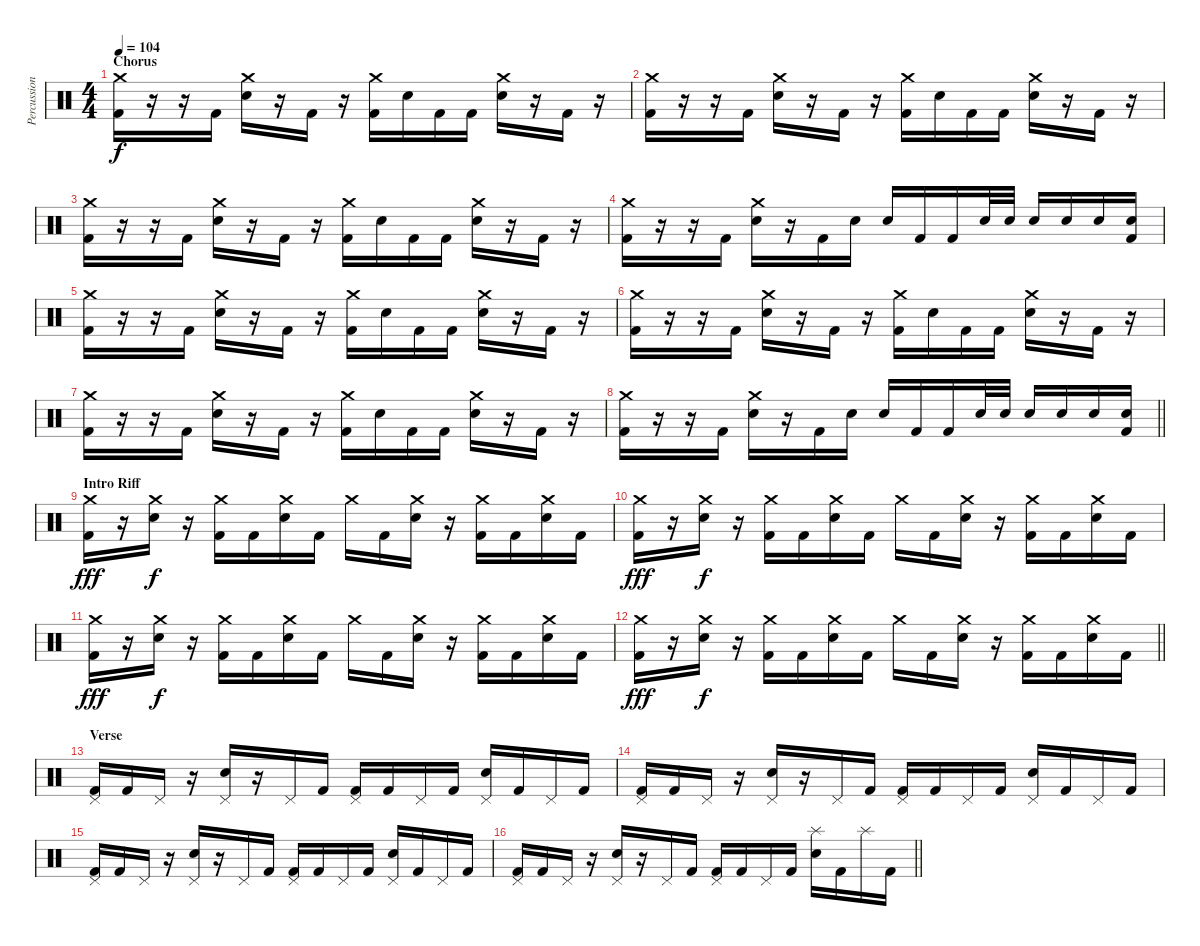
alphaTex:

\track ("Percussion" "Percussion") {instrument percussion}
\staff {score}
\articulation defaults
\ts (4 4)
\section ("" "Chorus")
\tempo 104
\clef neutral
\ks c
("Crash medium (hit)" "Kick (hit) 2").16{dy f} r.16 r.16 "Kick (hit) 2".16 ("Crash medium (hit)" "Electric Snare (hit)").16 r.16 "Kick (hit) 2".16 r.16 ("Crash medium (hit)" "Kick (hit) 2").16 "Electric Snare (hit)".16 "Kick (hit) 2".16 "Kick (hit) 2".16 ("Crash medium (hit)" "Electric Snare (hit)").16 r.16 "Kick (hit) 2".16 r.16 |
("Crash medium (hit)" "Kick (hit) 2").16 r.16 r.16 "Kick (hit) 2".16 ("Crash medium (hit)" "Electric Snare (hit)").16 r.16 "Kick (hit) 2".16 r.16 ("Crash medium (hit)" "Kick (hit) 2").16 "Electric Snare (hit)".16 "Kick (hit) 2".16 "Kick (hit) 2".16 ("Crash medium (hit)" "Electric Snare (hit)").16 r.16 "Kick (hit) 2".16 r.16 |
("Crash medium (hit)" "Kick (hit) 2").16 r.16 r.16 "Kick (hit) 2".16 ("Crash medium (hit)" "Electric Snare (hit)").16 r.16 "Kick (hit) 2".16 r.16 ("Crash medium (hit)" "Kick (hit) 2").16 "Electric Snare (hit)".16 "Kick (hit) 2".16 "Kick (hit) 2".16 ("Crash medium (hit)" "Electric Snare (hit)").16 r.16 "Kick (hit) 2".16 r.16 |
("Crash medium (hit)" "Kick (hit) 2").16 r.16 r.16 "Kick (hit) 2".16 ("Crash medium (hit)" "Electric Snare (hit)").16 r.16 "Kick (hit) 2".16 "Electric Snare (hit)".16 "Electric Snare (hit)".16 "Kick (hit) 2".16 "Kick (hit) 2".16 "Electric Snare (hit)".32 "Electric Snare (hit)".32 "Electric Snare (hit)".16 "Electric Snare (hit)".16 "Electric Snare (hit)".16 ("Electric Snare (hit)" "Kick (hit) 2").16 |
("Crash medium (hit)" "Kick (hit) 2").16 r.16 r.16 "Kick (hit) 2".16 ("Crash medium (hit)" "Electric Snare (hit)").16 r.16 "Kick (hit) 2".16 r.16 ("Crash medium (hit)" "Kick (hit) 2").16 "Electric Snare (hit)".16 "Kick (hit) 2".16 "Kick (hit) 2".16 ("Crash medium (hit)" "Electric Snare (hit)").16 r.16 "Kick (hit) 2".16 r.16 |
("Crash medium (hit)" "Kick (hit) 2").16 r.16 r.16 "Kick (hit) 2".16 ("Crash medium (hit)" "Electric Snare (hit)").16 r.16 "Kick (hit) 2".16 r.16 ("Crash medium (hit)" "Kick (hit) 2").16 "Electric Snare (hit)".16 "Kick (hit) 2".16 "Kick (hit) 2".16 ("Crash medium (hit)" "Electric Snare (hit)").16 r.16 "Kick (hit) 2".16 r.16 |
("Crash medium (hit)" "Kick (hit) 2").16 r.16 r.16 "Kick (hit) 2".16 ("Crash medium (hit)" "Electric Snare (hit)").16 r.16 "Kick (hit) 2".16 r.16 ("Crash medium (hit)" "Kick (hit) 2").16 "Electric Snare (hit)".16 "Kick (hit) 2".16 "Kick (hit) 2".16 ("Crash medium (hit)" "Electric Snare (hit)").16 r.16 "Kick (hit) 2".16 r.16 |
\barLineRight lightlight
("Crash medium (hit)" "Kick (hit) 2").16 r.16 r.16 "Kick (hit) 2".16 ("Crash medium (hit)" "Electric Snare (hit)").16 r.16 "Kick (hit) 2".16 "Electric Snare (hit)".16 "Electric Snare (hit)".16 "Kick (hit) 2".16 "Kick (hit) 2".16 "Electric Snare (hit)".32 "Electric Snare (hit)".32 "Electric Snare (hit)".16 "Electric Snare (hit)".16 "Electric Snare (hit)".16 ("Electric Snare (hit)" "Kick (hit) 2").16 |
\section ("" "Intro Riff")
("Crash medium (hit)" "Kick (hit) 2").16{dy fff} r.16 ("Crash medium (hit)" "Electric Snare (hit)").16{dy f} r.16 ("Crash medium (hit)" "Kick (hit) 2").16 "Kick (hit) 2".16 ("Crash medium (hit)" "Electric Snare (hit)").16 "Kick (hit) 2".16 "Crash medium (hit)".16 "Kick (hit) 2".16 ("Crash medium (hit)" "Electric Snare (hit)").16 r.16 ("Crash medium (hit)" "Kick (hit) 2").16 "Kick (hit) 2".16 ("Crash medium (hit)" "Electric Snare (hit)").16 "Kick (hit) 2".16 |
("Crash medium (hit)" "Kick (hit) 2").16{dy fff} r.16 ("Crash medium (hit)" "Electric Snare (hit)").16{dy f} r.16 ("Crash medium (hit)" "Kick (hit) 2").16 "Kick (hit) 2".16 ("Crash medium (hit)" "Electric Snare (hit)").16 "Kick (hit) 2".16 "Crash medium (hit)".16 "Kick (hit) 2".16 ("Crash medium (hit)" "Electric Snare (hit)").16 r.16 ("Crash medium (hit)" "Kick (hit) 2").16 "Kick (hit) 2".16 ("Crash medium (hit)" "Electric Snare (hit)").16 "Kick (hit) 2".16 |
("Crash medium (hit)" "Kick (hit) 2").16{dy fff} r.16 ("Crash medium (hit)" "Electric Snare (hit)").16{dy f} r.16 ("Crash medium (hit)" "Kick (hit) 2").16 "Kick (hit) 2".16 ("Crash medium (hit)" "Electric Snare (hit)").16 "Kick (hit) 2".16 "Crash medium (hit)".16 "Kick (hit) 2".16 ("Crash medium (hit)" "Electric Snare (hit)").16 r.16 ("Crash medium (hit)" "Kick (hit) 2").16 "Kick (hit) 2".16 ("Crash medium (hit)" "Electric Snare (hit)").16 "Kick (hit) 2".16 |
\barLineRight lightlight
("Crash medium (hit)" "Kick (hit) 2").16{dy fff} r.16 ("Crash medium (hit)" "Electric Snare (hit)").16{dy f} r.16 ("Crash medium (hit)" "Kick (hit) 2").16 "Kick (hit) 2".16 ("Crash medium (hit)" "Electric Snare (hit)").16 "Kick (hit) 2".16 "Crash medium (hit)".16 "Kick (hit) 2".16 ("Crash medium (hit)" "Electric Snare (hit)").16 r.16 ("Crash medium (hit)" "Kick (hit) 2").16 "Kick (hit) 2".16 ("Crash medium (hit)" "Electric Snare (hit)").16 "Kick (hit) 2".16 |
\section ("" "Verse")
("Pedal Hi-Hat (hit)" "Kick (hit) 2").16 "Kick (hit) 2".16 "Pedal Hi-Hat (hit)".16 r.16 ("Pedal Hi-Hat (hit)" "Electric Snare (hit)").16 r.16 "Pedal Hi-Hat (hit)".16 "Kick (hit) 2".16 ("Pedal Hi-Hat (hit)" "Kick (hit) 2").16 "Kick (hit) 2".16 "Pedal Hi-Hat (hit)".16 "Kick (hit) 2".16 ("Pedal Hi-Hat (hit)" "Electric Snare (hit)").16 "Kick (hit) 2".16 "Pedal Hi-Hat (hit)".16 "Kick (hit) 2".16 |
("Pedal Hi-Hat (hit)" "Kick (hit) 2").16 "Kick (hit) 2".16 "Pedal Hi-Hat (hit)".16 r.16 ("Pedal Hi-Hat (hit)" "Electric Snare (hit)").16 r.16 "Pedal Hi-Hat (hit)".16 "Kick (hit) 2".16 ("Pedal Hi-Hat (hit)" "Kick (hit) 2").16 "Kick (hit) 2".16 "Pedal Hi-Hat (hit)".16 "Kick (hit) 2".16 ("Pedal Hi-Hat (hit)" "Electric Snare (hit)").16 "Kick (hit) 2".16 "Pedal Hi-Hat (hit)".16 "Kick (hit) 2".16 |
("Pedal Hi-Hat (hit)" "Kick (hit) 2").16 "Kick (hit) 2".16 "Pedal Hi-Hat (hit)".16 r.16 ("Pedal Hi-Hat (hit)" "Electric Snare (hit)").16 r.16 "Pedal Hi-Hat (hit)".16 "Kick (hit) 2".16 ("Pedal Hi-Hat (hit)" "Kick (hit) 2").16 "Kick (hit) 2".16 "Pedal Hi-Hat (hit)".16 "Kick (hit) 2".16 ("Pedal Hi-Hat (hit)" "Electric Snare (hit)").16 "Kick (hit) 2".16 "Pedal Hi-Hat (hit)".16 "Kick (hit) 2".16 |
\barLineRight lightlight
("Pedal Hi-Hat (hit)" "Kick (hit) 2").16 "Kick (hit) 2".16 "Pedal Hi-Hat (hit)".16 r.16 ("Pedal Hi-Hat (hit)" "Electric Snare (hit)").16 r.16 "Pedal Hi-Hat (hit)".16 "Kick (hit) 2".16 ("Pedal Hi-Hat (hit)" "Kick (hit) 2").16 "Kick (hit) 2".16 "Pedal Hi-Hat (hit)".16 "Kick (hit) 2".16 ("Splash (hit)" "Electric Snare (hit)").16 "Kick (hit) 2".16 "Splash (hit)".16 "Kick (hit) 2".16
